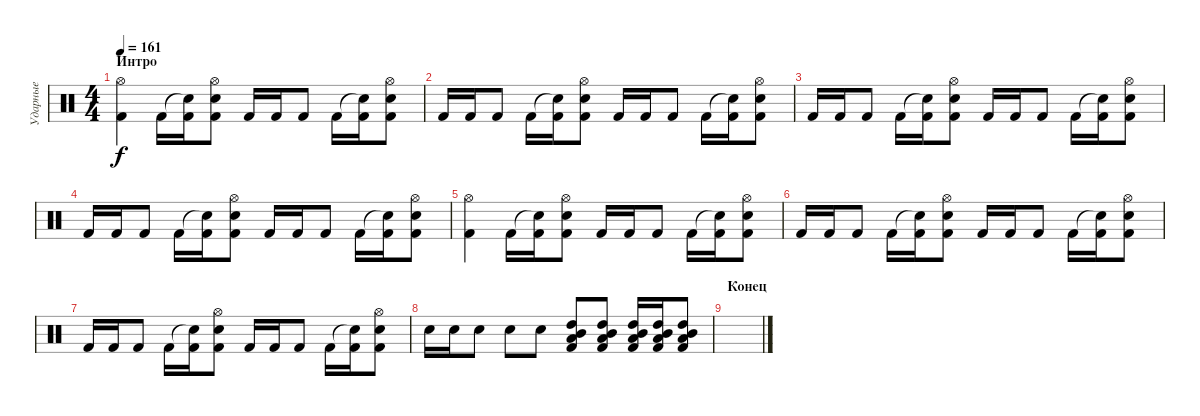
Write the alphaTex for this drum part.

\track ("Ударные" "Ударные") {instrument percussion}
\staff {score}
\articulation defaults
\ts (4 4)
\section ("" "Интро")
\tempo 161
\clef neutral
\ks c
("Hi-Hat (open)" "Kick (hit) 2").4{dy f} "Kick (hit) 2".16 ("Snare (hit)"{t} "Kick (hit) 2").16 ("Hi-Hat (open)" "Snare (hit) 2" "Kick (hit) 2").8 "Kick (hit) 2".16 "Kick (hit) 2".16 "Kick (hit) 2".8 "Kick (hit) 2".16 ("Snare (hit)"{t} "Kick (hit) 2").16 ("Hi-Hat (open)" "Snare (hit) 2" "Kick (hit) 2").8 |
"Kick (hit) 2".16 "Kick (hit) 2".16 "Kick (hit) 2".8 "Kick (hit) 2".16 ("Snare (hit)"{t} "Kick (hit) 2").16 ("Hi-Hat (open)" "Snare (hit) 2" "Kick (hit) 2").8 "Kick (hit) 2".16 "Kick (hit) 2".16 "Kick (hit) 2".8 "Kick (hit) 2".16 ("Snare (hit)"{t} "Kick (hit) 2").16 ("Hi-Hat (open)" "Snare (hit) 2" "Kick (hit) 2").8 |
"Kick (hit) 2".16 "Kick (hit) 2".16 "Kick (hit) 2".8 "Kick (hit) 2".16 ("Snare (hit)"{t} "Kick (hit) 2").16 ("Hi-Hat (open)" "Snare (hit) 2" "Kick (hit) 2").8 "Kick (hit) 2".16 "Kick (hit) 2".16 "Kick (hit) 2".8 "Kick (hit) 2".16 ("Snare (hit)"{t} "Kick (hit) 2").16 ("Hi-Hat (open)" "Snare (hit) 2" "Kick (hit) 2").8 |
"Kick (hit) 2".16 "Kick (hit) 2".16 "Kick (hit) 2".8 "Kick (hit) 2".16 ("Snare (hit)"{t} "Kick (hit) 2").16 ("Hi-Hat (open)" "Snare (hit) 2" "Kick (hit) 2").8 "Kick (hit) 2".16 "Kick (hit) 2".16 "Kick (hit) 2".8 "Kick (hit) 2".16 ("Snare (hit)"{t} "Kick (hit) 2").16 ("Hi-Hat (open)" "Snare (hit) 2" "Kick (hit) 2").8 |
("Hi-Hat (open)" "Kick (hit) 2").4 "Kick (hit) 2".16 ("Snare (hit)"{t} "Kick (hit) 2").16 ("Hi-Hat (open)" "Snare (hit) 2" "Kick (hit) 2").8 "Kick (hit) 2".16 "Kick (hit) 2".16 "Kick (hit) 2".8 "Kick (hit) 2".16 ("Snare (hit)"{t} "Kick (hit) 2").16 ("Hi-Hat (open)" "Snare (hit) 2" "Kick (hit) 2").8 |
"Kick (hit) 2".16 "Kick (hit) 2".16 "Kick (hit) 2".8 "Kick (hit) 2".16 ("Snare (hit)"{t} "Kick (hit) 2").16 ("Hi-Hat (open)" "Snare (hit) 2" "Kick (hit) 2").8 "Kick (hit) 2".16 "Kick (hit) 2".16 "Kick (hit) 2".8 "Kick (hit) 2".16 ("Snare (hit)"{t} "Kick (hit) 2").16 ("Hi-Hat (open)" "Snare (hit) 2" "Kick (hit) 2").8 |
"Kick (hit) 2".16 "Kick (hit) 2".16 "Kick (hit) 2".8 "Kick (hit) 2".16 ("Snare (hit)"{t} "Kick (hit) 2").16 ("Hi-Hat (open)" "Snare (hit) 2" "Kick (hit) 2").8 "Kick (hit) 2".16 "Kick (hit) 2".16 "Kick (hit) 2".8 "Kick (hit) 2".16 ("Snare (hit)"{t} "Kick (hit) 2").16 ("Hi-Hat (open)" "Snare (hit) 2" "Kick (hit) 2").8 |
"Snare (hit) 2".16 "Snare (hit) 2".16 "Snare (hit) 2".8 "Snare (hit) 2".8 "Snare (hit) 2".8 ("Mid Tom (hit)" "Low Tom (hit)" "Kick (hit) 2" "High Tom (hit)").8 ("Mid Tom (hit)" "Low Tom (hit)" "Kick (hit) 2" "High Tom (hit)").8 ("Mid Tom (hit)" "Low Tom (hit)" "Kick (hit) 2" "High Tom (hit)").16 ("Mid Tom (hit)" "Low Tom (hit)" "Kick (hit) 2" "High Tom (hit)").16 ("Mid Tom (hit)" "Low Tom (hit)" "Kick (hit) 2" "High Tom (hit)").8 |
\section ("" "Конец")
